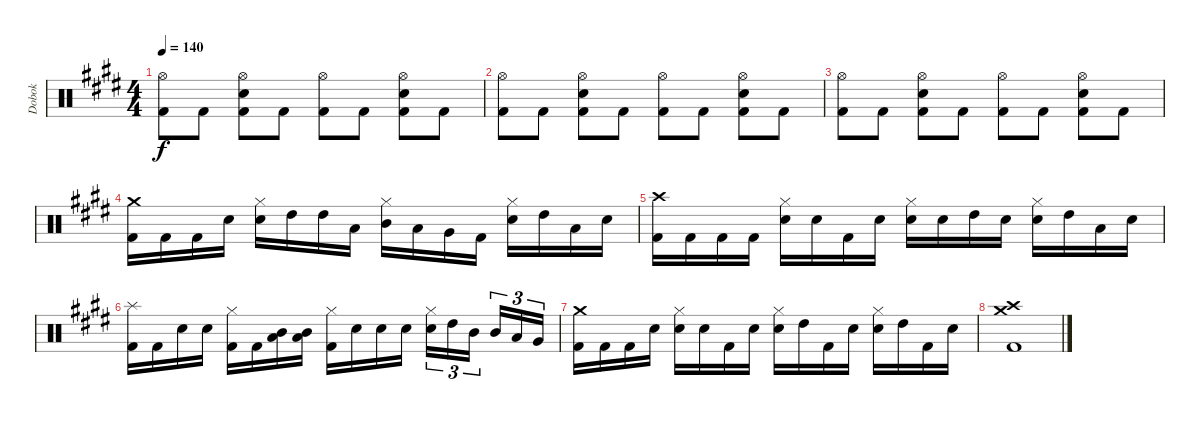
\track ("Dobok" "Dobok") {instrument percussion}
\staff {score}
\articulation defaults
\ts (4 4)
\tempo 140
\clef neutral
\ks c#minor
("Hi-Hat (open)" "Kick (hit) 2").8{dy f} "Kick (hit) 2".8 ("Hi-Hat (open)" "Snare (hit) 2" "Kick (hit) 2").8 "Kick (hit) 2".8 ("Hi-Hat (open)" "Kick (hit) 2").8 "Kick (hit) 2".8 ("Hi-Hat (open)" "Snare (hit) 2" "Kick (hit) 2").8 "Kick (hit) 2".8 |
("Hi-Hat (open)" "Kick (hit) 2").8 "Kick (hit) 2".8 ("Hi-Hat (open)" "Snare (hit) 2" "Kick (hit) 2").8 "Kick (hit) 2".8 ("Hi-Hat (open)" "Kick (hit) 2").8 "Kick (hit) 2".8 ("Hi-Hat (open)" "Snare (hit) 2" "Kick (hit) 2").8 "Kick (hit) 2".8 |
("Hi-Hat (open)" "Kick (hit) 2").8 "Kick (hit) 2".8 ("Hi-Hat (open)" "Snare (hit) 2" "Kick (hit) 2").8 "Kick (hit) 2".8 ("Hi-Hat (open)" "Kick (hit) 2").8 "Kick (hit) 2".8 ("Hi-Hat (open)" "Snare (hit) 2" "Kick (hit) 2").8 "Kick (hit) 2".8 |
("Crash medium (hit)" "Kick (hit) 2").16 "Kick (hit) 2".16 "Kick (hit) 2".16 "Snare (hit) 2".16 ("Hi-Hat (closed)" "Snare (hit) 2").16 "High Tom (hit)".16 "High Tom (hit)".16 "Low Tom (hit)".16 ("Hi-Hat (closed)" "Mid Tom (hit)").16 "Low Tom (hit)".16 "Very Low Tom (hit)".16 "Kick (hit) 2".16 ("Hi-Hat (closed)" "Snare (hit) 2").16 "High Tom (hit)".16 "Low Tom (hit)".16 "Snare (hit) 2".16 |
("Crash high (hit)" "Kick (hit) 2").16 "Kick (hit) 2".16 "Kick (hit) 2".16 "Kick (hit) 2".16 ("Hi-Hat (closed)" "Snare (hit) 2").16 "Snare (hit) 2".16 "Kick (hit) 2".16 "Snare (hit) 2".16 ("Hi-Hat (closed)" "Snare (hit) 2").16 "Snare (hit) 2".16 "High Tom (hit)".16 "Snare (hit) 2".16 ("Hi-Hat (closed)" "Snare (hit) 2").16 "High Tom (hit)".16 "Low Tom (hit)".16 "Snare (hit) 2".16 |
("Splash (hit)" "Kick (hit) 2").16 "Kick (hit) 2".16 "Snare (hit) 2".16 "Snare (hit) 2".16 ("Hi-Hat (closed)" "Kick (hit) 2").16 "Kick (hit) 2".16 ("Low Tom (hit)" "Mid Tom (hit)").16 ("Low Tom (hit)" "Mid Tom (hit)").16 ("Hi-Hat (closed)" "Kick (hit) 2").16 "Snare (hit) 2".16 "Snare (hit) 2".16 "Snare (hit) 2".16 ("Hi-Hat (closed)" "Snare (hit) 2").16{tu (3 2)} "High Tom (hit)".16{tu (3 2)} "Mid Tom (hit)".16{tu (3 2)} "Mid Tom (hit)".16{tu (3 2)} "Low Tom (hit)".16{tu (3 2)} "Very Low Tom (hit)".16{tu (3 2)} |
("Crash medium (hit)" "Kick (hit) 2").16 "Kick (hit) 2".16 "Kick (hit) 2".16 "Snare (hit) 2".16 ("Hi-Hat (closed)" "Snare (hit) 2").16 "Snare (hit) 2".16 "Kick (hit) 2".16 "Snare (hit) 2".16 ("Hi-Hat (closed)" "Snare (hit) 2").16 "High Tom (hit)".16 "Kick (hit) 2".16 "Snare (hit) 2".16 ("Hi-Hat (closed)" "Snare (hit) 2").16 "High Tom (hit)".16 "Kick (hit) 2".16 "Snare (hit) 2".16 |
("Crash high (hit)" "Crash medium (hit)" "Kick (hit) 2").1
